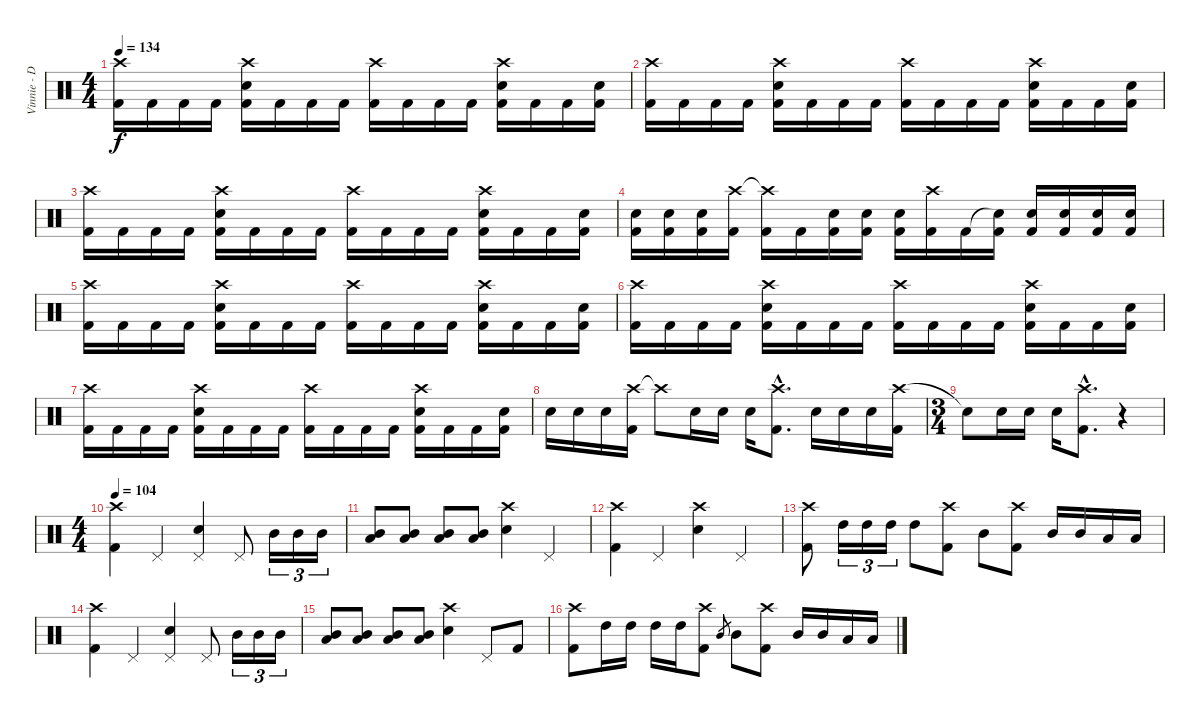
\track ("Vinnie - Drums" "Vinnie - D") {instrument percussion}
\staff {score}
\articulation defaults
\ts (4 4)
\tempo 134
\clef neutral
\ks c
("Crash high (hit)" "Kick (hit) 2").16{dy f} "Kick (hit) 2".16 "Kick (hit) 2".16 "Kick (hit) 2".16 ("Crash high (hit)" "Electric Snare (hit)" "Kick (hit) 2").16 "Kick (hit) 2".16 "Kick (hit) 2".16 "Kick (hit) 2".16 ("Crash high (hit)" "Kick (hit) 2").16 "Kick (hit) 2".16 "Kick (hit) 2".16 "Kick (hit) 2".16 ("Crash high (hit)" "Electric Snare (hit)" "Kick (hit) 2").16 "Kick (hit) 2".16 "Kick (hit) 2".16 ("Electric Snare (hit)" "Kick (hit) 2").16 |
("Crash high (hit)" "Kick (hit) 2").16 "Kick (hit) 2".16 "Kick (hit) 2".16 "Kick (hit) 2".16 ("Crash high (hit)" "Electric Snare (hit)" "Kick (hit) 2").16 "Kick (hit) 2".16 "Kick (hit) 2".16 "Kick (hit) 2".16 ("Crash high (hit)" "Kick (hit) 2").16 "Kick (hit) 2".16 "Kick (hit) 2".16 "Kick (hit) 2".16 ("Crash high (hit)" "Electric Snare (hit)" "Kick (hit) 2").16 "Kick (hit) 2".16 "Kick (hit) 2".16 ("Electric Snare (hit)" "Kick (hit) 2").16 |
("Crash high (hit)" "Kick (hit) 2").16 "Kick (hit) 2".16 "Kick (hit) 2".16 "Kick (hit) 2".16 ("Crash high (hit)" "Electric Snare (hit)" "Kick (hit) 2").16 "Kick (hit) 2".16 "Kick (hit) 2".16 "Kick (hit) 2".16 ("Crash high (hit)" "Kick (hit) 2").16 "Kick (hit) 2".16 "Kick (hit) 2".16 "Kick (hit) 2".16 ("Crash high (hit)" "Electric Snare (hit)" "Kick (hit) 2").16 "Kick (hit) 2".16 "Kick (hit) 2".16 ("Electric Snare (hit)" "Kick (hit) 2").16 |
("Electric Snare (hit)" "Kick (hit) 2").16 ("Electric Snare (hit)" "Kick (hit) 2").16 ("Electric Snare (hit)" "Kick (hit) 2").16 ("Crash high (hit)" "Kick (hit) 2").16 ("Crash high (hit)"{t} "Kick (hit) 2").16 "Kick (hit) 2".16 ("Electric Snare (hit)" "Kick (hit) 2").16 ("Electric Snare (hit)" "Kick (hit) 2").16 ("Electric Snare (hit)" "Kick (hit) 2").16 ("Crash high (hit)" "Kick (hit) 2").16 "Kick (hit) 2".16 ("Snare (hit)"{t} "Kick (hit) 2").16 ("Electric Snare (hit)" "Kick (hit) 2").16 ("Electric Snare (hit)" "Kick (hit) 2").16 ("Electric Snare (hit)" "Kick (hit) 2").16 ("Electric Snare (hit)" "Kick (hit) 2").16 |
("Crash high (hit)" "Kick (hit) 2").16 "Kick (hit) 2".16 "Kick (hit) 2".16 "Kick (hit) 2".16 ("Crash high (hit)" "Electric Snare (hit)" "Kick (hit) 2").16 "Kick (hit) 2".16 "Kick (hit) 2".16 "Kick (hit) 2".16 ("Crash high (hit)" "Kick (hit) 2").16 "Kick (hit) 2".16 "Kick (hit) 2".16 "Kick (hit) 2".16 ("Crash high (hit)" "Electric Snare (hit)" "Kick (hit) 2").16 "Kick (hit) 2".16 "Kick (hit) 2".16 ("Electric Snare (hit)" "Kick (hit) 2").16 |
("Crash high (hit)" "Kick (hit) 2").16 "Kick (hit) 2".16 "Kick (hit) 2".16 "Kick (hit) 2".16 ("Crash high (hit)" "Electric Snare (hit)" "Kick (hit) 2").16 "Kick (hit) 2".16 "Kick (hit) 2".16 "Kick (hit) 2".16 ("Crash high (hit)" "Kick (hit) 2").16 "Kick (hit) 2".16 "Kick (hit) 2".16 "Kick (hit) 2".16 ("Crash high (hit)" "Electric Snare (hit)" "Kick (hit) 2").16 "Kick (hit) 2".16 "Kick (hit) 2".16 ("Electric Snare (hit)" "Kick (hit) 2").16 |
("Crash high (hit)" "Kick (hit) 2").16 "Kick (hit) 2".16 "Kick (hit) 2".16 "Kick (hit) 2".16 ("Crash high (hit)" "Electric Snare (hit)" "Kick (hit) 2").16 "Kick (hit) 2".16 "Kick (hit) 2".16 "Kick (hit) 2".16 ("Crash high (hit)" "Kick (hit) 2").16 "Kick (hit) 2".16 "Kick (hit) 2".16 "Kick (hit) 2".16 ("Crash high (hit)" "Electric Snare (hit)" "Kick (hit) 2").16 "Kick (hit) 2".16 "Kick (hit) 2".16 ("Electric Snare (hit)" "Kick (hit) 2").16 |
"Electric Snare (hit)".16 "Electric Snare (hit)".16 "Electric Snare (hit)".16 ("Crash high (hit)" "Kick (hit) 2").16 "Crash high (hit)"{t}.8 "Electric Snare (hit)".16 "Electric Snare (hit)".16 "Electric Snare (hit)".16 ("Crash high (hit)"{hac} "Kick (hit) 2"{hac}).8{d} "Electric Snare (hit)".16 "Electric Snare (hit)".16 "Electric Snare (hit)".16 ("Crash high (hit)" "Kick (hit) 2").16 |
\ts (3 4)
"Snare (hit)"{t}.8 "Electric Snare (hit)".16 "Electric Snare (hit)".16 "Electric Snare (hit)".16 ("Crash high (hit)"{hac} "Kick (hit) 2"{hac}).8{d} r.4 |
\ts (4 4)
\tempo 104
("Crash high (hit)" "Kick (hit) 2").4 "Pedal Hi-Hat (hit)".4 ("Pedal Hi-Hat (hit)" "Electric Snare (hit)").4 "Pedal Hi-Hat (hit)".8 "Mid Tom (hit)".16{tu (3 2)} "Mid Tom (hit)".16{tu (3 2)} "Mid Tom (hit)".16{tu (3 2)} |
("Mid Tom (hit)" "Low Tom (hit)").8 ("Mid Tom (hit)" "Low Tom (hit)").8 ("Mid Tom (hit)" "Low Tom (hit)").8 ("Mid Tom (hit)" "Low Tom (hit)").8 ("Crash high (hit)" "Electric Snare (hit)").4 "Pedal Hi-Hat (hit)".4 |
("Crash high (hit)" "Kick (hit) 2").4 "Pedal Hi-Hat (hit)".4 ("Crash high (hit)" "Electric Snare (hit)").4 "Pedal Hi-Hat (hit)".4 |
("Crash high (hit)" "Kick (hit) 2").8 "High Tom (hit)".16{tu (3 2)} "High Tom (hit)".16{tu (3 2)} "High Tom (hit)".16{tu (3 2)} "High Tom (hit)".8 ("Crash high (hit)" "Kick (hit) 2").8 "Mid Tom (hit)".8 ("Crash high (hit)" "Kick (hit) 2").8 "Mid Tom (hit)".16 "Mid Tom (hit)".16 "Low Tom (hit)".16 "Low Tom (hit)".16 |
("Crash high (hit)" "Kick (hit) 2").4 "Pedal Hi-Hat (hit)".4 ("Pedal Hi-Hat (hit)" "Electric Snare (hit)").4 "Pedal Hi-Hat (hit)".8 "Mid Tom (hit)".16{tu (3 2)} "Mid Tom (hit)".16{tu (3 2)} "Mid Tom (hit)".16{tu (3 2)} |
("Mid Tom (hit)" "Low Tom (hit)").8 ("Mid Tom (hit)" "Low Tom (hit)").8 ("Mid Tom (hit)" "Low Tom (hit)").8 ("Mid Tom (hit)" "Low Tom (hit)").8 ("Crash high (hit)" "Electric Snare (hit)").4 "Pedal Hi-Hat (hit)".8 "Kick (hit) 2".8 |
("Crash high (hit)" "Kick (hit) 2").8 "High Tom (hit)".16 "High Tom (hit)".16 "High Tom (hit)".16 "High Tom (hit)".16 ("Crash high (hit)" "Kick (hit) 2").8 "Mid Tom (hit)".8{gr} "Mid Tom (hit)".8 ("Crash high (hit)" "Kick (hit) 2").8 "Mid Tom (hit)".16 "Mid Tom (hit)".16 "Low Tom (hit)".16 "Low Tom (hit)".16
